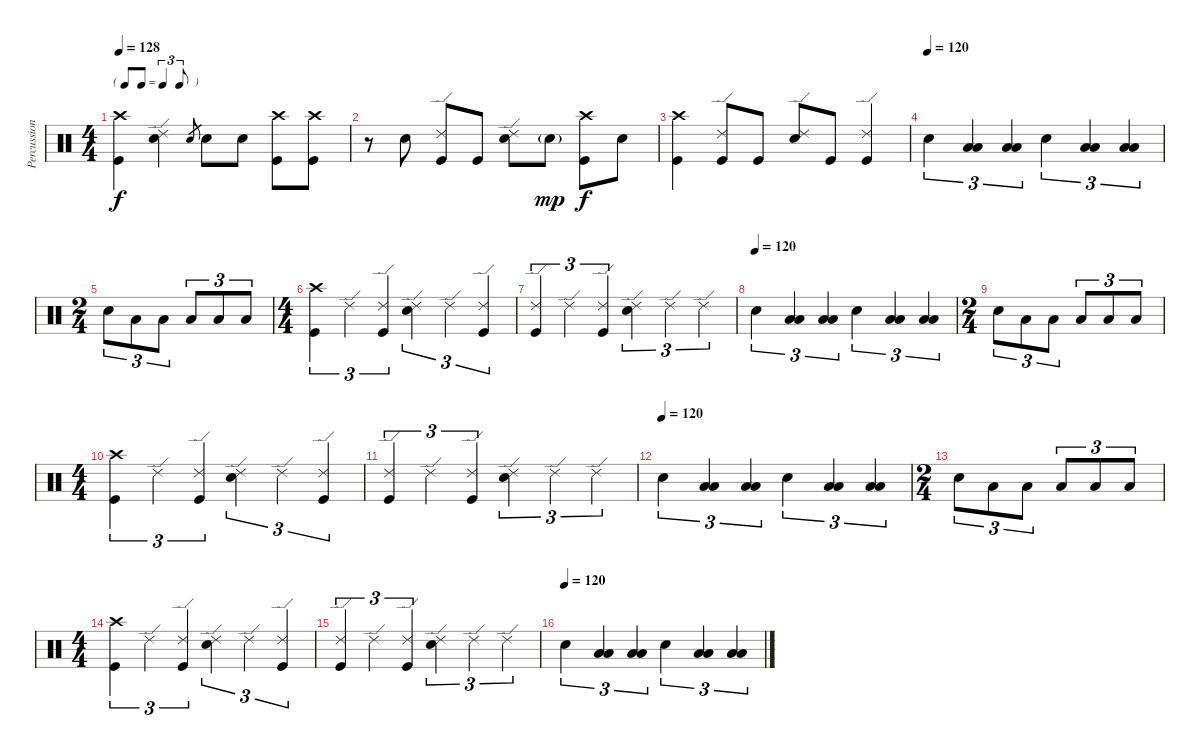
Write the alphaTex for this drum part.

\track ("Percussion" "Percussion") {instrument percussion}
\staff {score}
\articulation defaults
\ts (4 4)
\tf triplet8th
\tempo 128
\clef neutral
\ks c
("Crash high (hit)" "Kick (hit)").4{dy f} ("Ride (edge) 2" "Electric Snare (hit)").4 "Electric Snare (hit)".8{gr} "Electric Snare (hit)".8 "Electric Snare (hit)".8 ("Crash high (hit)" "Kick (hit)").8 ("Crash high (hit)" "Kick (hit)").8 |
r.8 "Electric Snare (hit)".8 ("Ride (edge) 2" "Kick (hit)").8 "Kick (hit)".8 ("Ride (edge) 2" "Electric Snare (hit)").8 "Electric Snare (hit)"{g}.8{dy mp} ("Crash high (hit)" "Kick (hit)").8{dy f} "Electric Snare (hit)".8 |
("Crash high (hit)" "Kick (hit)").4 ("Ride (edge) 2" "Kick (hit)").8 "Kick (hit)".8 ("Ride (edge) 2" "Electric Snare (hit)").8 "Kick (hit)".8 ("Ride (edge) 2" "Kick (hit)").4 |
\tempo (120)
"Electric Snare (hit)".4{tu (3 2)} ("Low Tom (hit)" "Low Floor Tom (hit)").4{tu (3 2)} ("Low Tom (hit)" "Low Floor Tom (hit)").4{tu (3 2)} "Electric Snare (hit)".4{tu (3 2)} ("Low Tom (hit)" "Low Floor Tom (hit)").4{tu (3 2)} ("Low Tom (hit)" "Low Floor Tom (hit)").4{tu (3 2)} |
\ts (2 4)
"Electric Snare (hit)".8{tu (3 2)} "Low Tom (hit)".8{tu (3 2)} "Low Tom (hit)".8{tu (3 2)} "Low Floor Tom (hit)".8{tu (3 2)} "Low Floor Tom (hit)".8{tu (3 2)} "Low Floor Tom (hit)".8{tu (3 2)} |
\ts (4 4)
("Crash high (hit)" "Kick (hit)").4{tu (3 2)} "Ride (edge) 2".4{tu (3 2)} ("Ride (edge) 2" "Kick (hit)").4{tu (3 2)} ("Ride (edge) 2" "Electric Snare (hit)").4{tu (3 2)} "Ride (edge) 2".4{tu (3 2)} ("Ride (edge) 2" "Kick (hit)").4{tu (3 2)} |
("Ride (edge) 2" "Kick (hit)").4{tu (3 2)} "Ride (edge) 2".4{tu (3 2)} ("Ride (edge) 2" "Kick (hit)").4{tu (3 2)} ("Ride (edge) 2" "Electric Snare (hit)").4{tu (3 2)} "Ride (edge) 2".4{tu (3 2)} "Ride (edge) 2".4{tu (3 2)} |
\tempo (120)
"Electric Snare (hit)".4{tu (3 2)} ("Low Tom (hit)" "Low Floor Tom (hit)").4{tu (3 2)} ("Low Tom (hit)" "Low Floor Tom (hit)").4{tu (3 2)} "Electric Snare (hit)".4{tu (3 2)} ("Low Tom (hit)" "Low Floor Tom (hit)").4{tu (3 2)} ("Low Tom (hit)" "Low Floor Tom (hit)").4{tu (3 2)} |
\ts (2 4)
"Electric Snare (hit)".8{tu (3 2)} "Low Tom (hit)".8{tu (3 2)} "Low Tom (hit)".8{tu (3 2)} "Low Floor Tom (hit)".8{tu (3 2)} "Low Floor Tom (hit)".8{tu (3 2)} "Low Floor Tom (hit)".8{tu (3 2)} |
\ts (4 4)
("Crash high (hit)" "Kick (hit)").4{tu (3 2)} "Ride (edge) 2".4{tu (3 2)} ("Ride (edge) 2" "Kick (hit)").4{tu (3 2)} ("Ride (edge) 2" "Electric Snare (hit)").4{tu (3 2)} "Ride (edge) 2".4{tu (3 2)} ("Ride (edge) 2" "Kick (hit)").4{tu (3 2)} |
("Ride (edge) 2" "Kick (hit)").4{tu (3 2)} "Ride (edge) 2".4{tu (3 2)} ("Ride (edge) 2" "Kick (hit)").4{tu (3 2)} ("Ride (edge) 2" "Electric Snare (hit)").4{tu (3 2)} "Ride (edge) 2".4{tu (3 2)} "Ride (edge) 2".4{tu (3 2)} |
\tempo (120)
"Electric Snare (hit)".4{tu (3 2)} ("Low Tom (hit)" "Low Floor Tom (hit)").4{tu (3 2)} ("Low Tom (hit)" "Low Floor Tom (hit)").4{tu (3 2)} "Electric Snare (hit)".4{tu (3 2)} ("Low Tom (hit)" "Low Floor Tom (hit)").4{tu (3 2)} ("Low Tom (hit)" "Low Floor Tom (hit)").4{tu (3 2)} |
\ts (2 4)
"Electric Snare (hit)".8{tu (3 2)} "Low Tom (hit)".8{tu (3 2)} "Low Tom (hit)".8{tu (3 2)} "Low Floor Tom (hit)".8{tu (3 2)} "Low Floor Tom (hit)".8{tu (3 2)} "Low Floor Tom (hit)".8{tu (3 2)} |
\ts (4 4)
("Crash high (hit)" "Kick (hit)").4{tu (3 2)} "Ride (edge) 2".4{tu (3 2)} ("Ride (edge) 2" "Kick (hit)").4{tu (3 2)} ("Ride (edge) 2" "Electric Snare (hit)").4{tu (3 2)} "Ride (edge) 2".4{tu (3 2)} ("Ride (edge) 2" "Kick (hit)").4{tu (3 2)} |
("Ride (edge) 2" "Kick (hit)").4{tu (3 2)} "Ride (edge) 2".4{tu (3 2)} ("Ride (edge) 2" "Kick (hit)").4{tu (3 2)} ("Ride (edge) 2" "Electric Snare (hit)").4{tu (3 2)} "Ride (edge) 2".4{tu (3 2)} "Ride (edge) 2".4{tu (3 2)} |
\tempo (120)
"Electric Snare (hit)".4{tu (3 2)} ("Low Tom (hit)" "Low Floor Tom (hit)").4{tu (3 2)} ("Low Tom (hit)" "Low Floor Tom (hit)").4{tu (3 2)} "Electric Snare (hit)".4{tu (3 2)} ("Low Tom (hit)" "Low Floor Tom (hit)").4{tu (3 2)} ("Low Tom (hit)" "Low Floor Tom (hit)").4{tu (3 2)}
